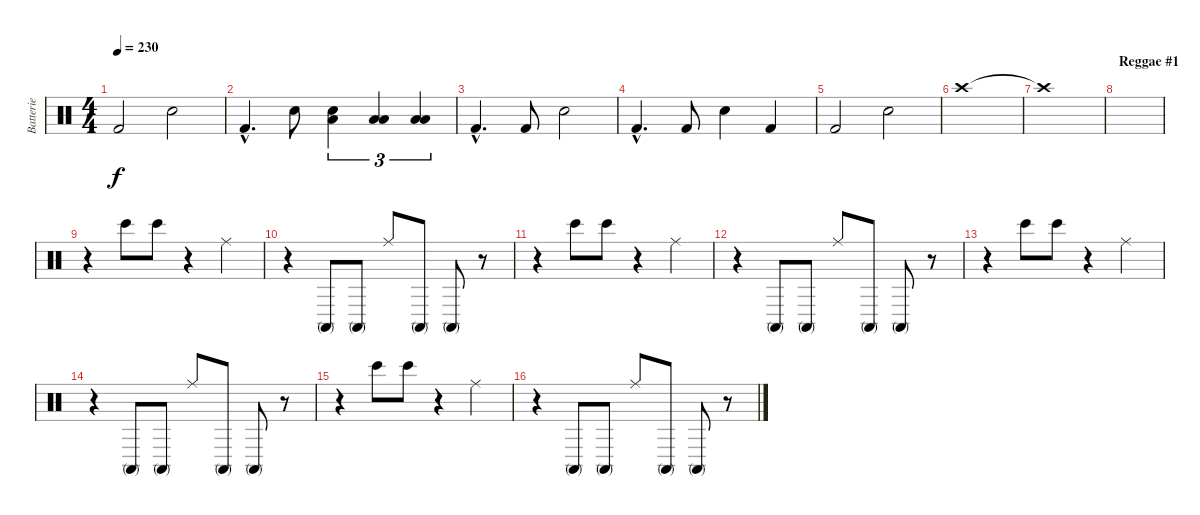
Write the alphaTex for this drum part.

\track ("Batterie" "Batterie") {instrument percussion}
\staff {score}
\articulation defaults
\ts (4 4)
\tempo 230
\clef neutral
\ks c "Kick (hit) 2".2{dy f} "Snare (hit) 2".2
|
"Kick (hit) 2"{hac}.4{d} "Snare (hit) 2".8 ("Snare (hit) 2" "Low Floor Tom (hit)").4{tu (3 2)} ("Low Tom (hit)" "Low Floor Tom (hit)").4{tu (3 2)} ("Low Floor Tom (hit)" "Low Floor Tom (hit)").4{tu (3 2)} |
"Kick (hit) 2"{hac}.4{d} "Kick (hit) 2".8 "Snare (hit) 2".2 |
"Kick (hit) 2"{hac}.4{d} "Kick (hit) 2".8 "Snare (hit) 2".4 "Kick (hit) 2".4 |
"Kick (hit) 2".2 "Snare (hit) 2".2 |
"Crash high (hit)".1 |
"Crash high (hit)"{t}.1 |
\section ("" "Reggae #1")
|
r.4 "Bongo High (hit)".8 "Bongo High (hit)".8 r.4 "Ride (middle)".4 |
r.4 "Conga high (mute)".8 "Conga high (mute)".8 "Ride (middle)".8 "Conga high (mute)".8 "Conga high (mute)".8 r.8 |
r.4 "Bongo High (hit)".8 "Bongo High (hit)".8 r.4 "Ride (middle)".4 |
r.4 "Conga high (mute)".8 "Conga high (mute)".8 "Ride (middle)".8 "Conga high (mute)".8 "Conga high (mute)".8 r.8 |
r.4 "Bongo High (hit)".8 "Bongo High (hit)".8 r.4 "Ride (middle)".4 |
r.4 "Conga high (mute)".8 "Conga high (mute)".8 "Ride (middle)".8 "Conga high (mute)".8 "Conga high (mute)".8 r.8 |
r.4 "Bongo High (hit)".8 "Bongo High (hit)".8 r.4 "Ride (middle)".4 |
r.4 "Conga high (mute)".8 "Conga high (mute)".8 "Ride (middle)".8 "Conga high (mute)".8 "Conga high (mute)".8 r.8
